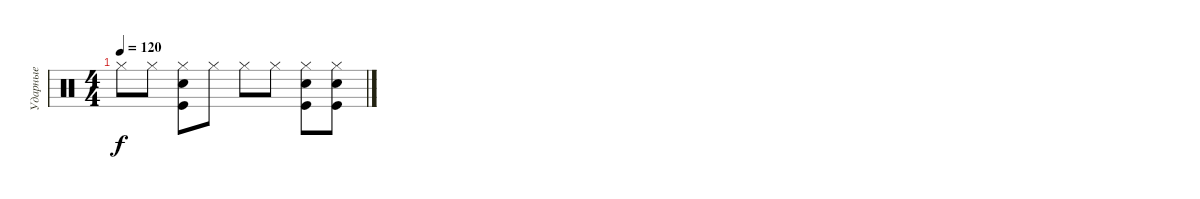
\track ("Ударные" "Ударные") {instrument percussion}
\staff {score}
\articulation defaults
\ts (4 4)
\tempo 120
\clef neutral
\ks c "Hi-Hat (closed)".8{dy f} "Hi-Hat (closed)".8
("Hi-Hat (closed)" "Kick (hit)" "Snare (hit) 2").8 "Hi-Hat (closed)".8 "Hi-Hat (closed)".8 "Hi-Hat (closed)".8 ("Hi-Hat (closed)" "Kick (hit)" "Snare (hit) 2").8 ("Hi-Hat (closed)" "Kick (hit)" "Snare (hit) 2").8
